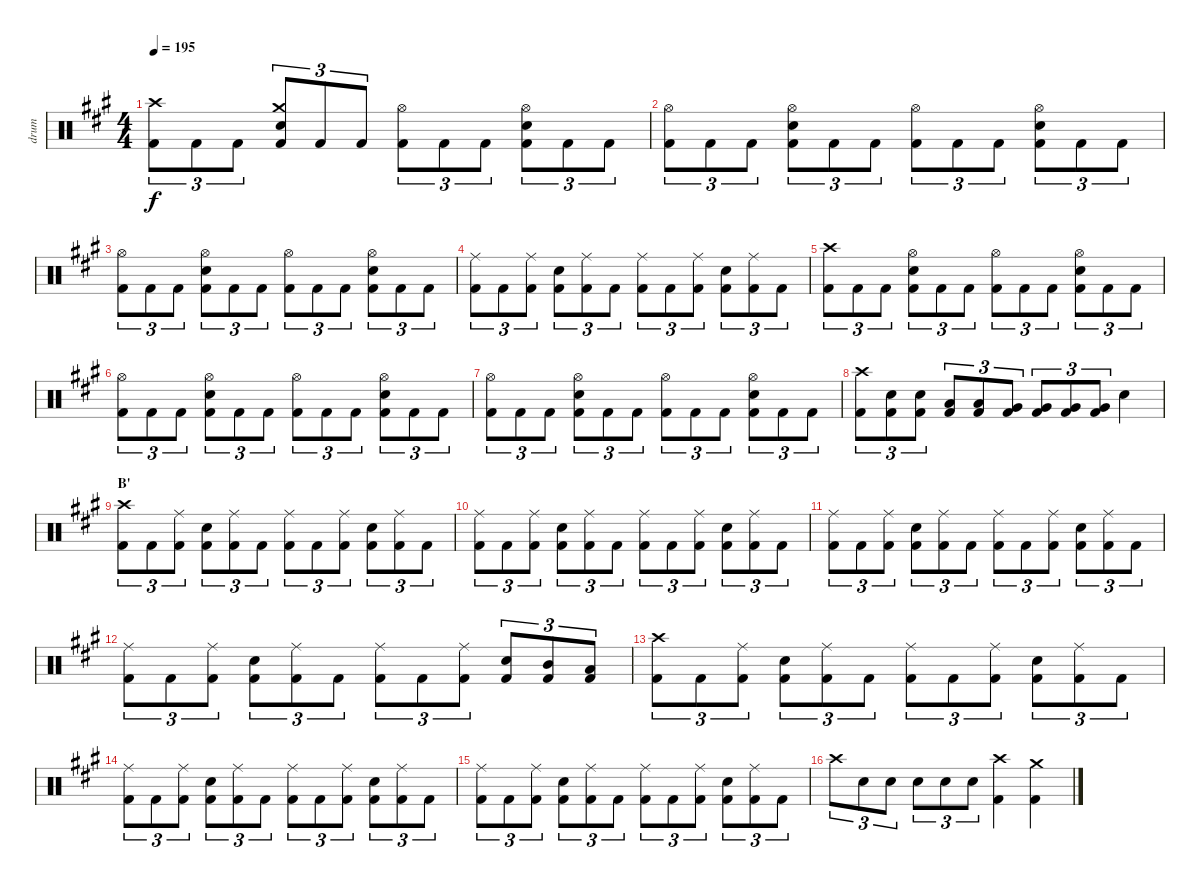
\track ("drum" "drum") {instrument percussion}
\staff {score}
\articulation defaults
\ts (4 4)
\tempo 195
\clef neutral
\ks a
("Crash high (hit)" "Kick (hit) 2").8{tu (3 2) dy f} "Kick (hit) 2".8{tu (3 2)} "Kick (hit) 2".8{tu (3 2)} ("Crash medium (hit)" "Electric Snare (hit)" "Kick (hit) 2").8{tu (3 2)} "Kick (hit) 2".8{tu (3 2)} "Kick (hit) 2".8{tu (3 2)} ("Hi-Hat (open)" "Kick (hit) 2").8{tu (3 2)} "Kick (hit) 2".8{tu (3 2)} "Kick (hit) 2".8{tu (3 2)} ("Hi-Hat (open)" "Electric Snare (hit)" "Kick (hit) 2").8{tu (3 2)} "Kick (hit) 2".8{tu (3 2)} "Kick (hit) 2".8{tu (3 2)} |
("Hi-Hat (open)" "Kick (hit) 2").8{tu (3 2)} "Kick (hit) 2".8{tu (3 2)} "Kick (hit) 2".8{tu (3 2)} ("Hi-Hat (open)" "Electric Snare (hit)" "Kick (hit) 2").8{tu (3 2)} "Kick (hit) 2".8{tu (3 2)} "Kick (hit) 2".8{tu (3 2)} ("Hi-Hat (open)" "Kick (hit) 2").8{tu (3 2)} "Kick (hit) 2".8{tu (3 2)} "Kick (hit) 2".8{tu (3 2)} ("Hi-Hat (open)" "Electric Snare (hit)" "Kick (hit) 2").8{tu (3 2)} "Kick (hit) 2".8{tu (3 2)} "Kick (hit) 2".8{tu (3 2)} |
("Hi-Hat (open)" "Kick (hit) 2").8{tu (3 2)} "Kick (hit) 2".8{tu (3 2)} "Kick (hit) 2".8{tu (3 2)} ("Hi-Hat (open)" "Electric Snare (hit)" "Kick (hit) 2").8{tu (3 2)} "Kick (hit) 2".8{tu (3 2)} "Kick (hit) 2".8{tu (3 2)} ("Hi-Hat (open)" "Kick (hit) 2").8{tu (3 2)} "Kick (hit) 2".8{tu (3 2)} "Kick (hit) 2".8{tu (3 2)} ("Hi-Hat (open)" "Electric Snare (hit)" "Kick (hit) 2").8{tu (3 2)} "Kick (hit) 2".8{tu (3 2)} "Kick (hit) 2".8{tu (3 2)} |
("Ride (middle)" "Kick (hit) 2").8{tu (3 2)} "Kick (hit) 2".8{tu (3 2)} ("Ride (middle)" "Kick (hit) 2").8{tu (3 2)} ("Electric Snare (hit)" "Kick (hit) 2").8{tu (3 2)} ("Ride (middle)" "Kick (hit) 2").8{tu (3 2)} "Kick (hit) 2".8{tu (3 2)} ("Ride (middle)" "Kick (hit) 2").8{tu (3 2)} "Kick (hit) 2".8{tu (3 2)} ("Ride (middle)" "Kick (hit) 2").8{tu (3 2)} ("Electric Snare (hit)" "Kick (hit) 2").8{tu (3 2)} ("Ride (middle)" "Kick (hit) 2").8{tu (3 2)} "Kick (hit) 2".8{tu (3 2)} |
("Crash high (hit)" "Kick (hit) 2").8{tu (3 2)} "Kick (hit) 2".8{tu (3 2)} "Kick (hit) 2".8{tu (3 2)} ("Hi-Hat (open)" "Electric Snare (hit)" "Kick (hit) 2").8{tu (3 2)} "Kick (hit) 2".8{tu (3 2)} "Kick (hit) 2".8{tu (3 2)} ("Hi-Hat (open)" "Kick (hit) 2").8{tu (3 2)} "Kick (hit) 2".8{tu (3 2)} "Kick (hit) 2".8{tu (3 2)} ("Hi-Hat (open)" "Electric Snare (hit)" "Kick (hit) 2").8{tu (3 2)} "Kick (hit) 2".8{tu (3 2)} "Kick (hit) 2".8{tu (3 2)} |
("Hi-Hat (open)" "Kick (hit) 2").8{tu (3 2)} "Kick (hit) 2".8{tu (3 2)} "Kick (hit) 2".8{tu (3 2)} ("Hi-Hat (open)" "Electric Snare (hit)" "Kick (hit) 2").8{tu (3 2)} "Kick (hit) 2".8{tu (3 2)} "Kick (hit) 2".8{tu (3 2)} ("Hi-Hat (open)" "Kick (hit) 2").8{tu (3 2)} "Kick (hit) 2".8{tu (3 2)} "Kick (hit) 2".8{tu (3 2)} ("Hi-Hat (open)" "Electric Snare (hit)" "Kick (hit) 2").8{tu (3 2)} "Kick (hit) 2".8{tu (3 2)} "Kick (hit) 2".8{tu (3 2)} |
("Hi-Hat (open)" "Kick (hit) 2").8{tu (3 2)} "Kick (hit) 2".8{tu (3 2)} "Kick (hit) 2".8{tu (3 2)} ("Hi-Hat (open)" "Electric Snare (hit)" "Kick (hit) 2").8{tu (3 2)} "Kick (hit) 2".8{tu (3 2)} "Kick (hit) 2".8{tu (3 2)} ("Hi-Hat (open)" "Kick (hit) 2").8{tu (3 2)} "Kick (hit) 2".8{tu (3 2)} "Kick (hit) 2".8{tu (3 2)} ("Hi-Hat (open)" "Electric Snare (hit)" "Kick (hit) 2").8{tu (3 2)} "Kick (hit) 2".8{tu (3 2)} "Kick (hit) 2".8{tu (3 2)} |
("Crash high (hit)" "Kick (hit) 2").8{tu (3 2)} ("Electric Snare (hit)" "Kick (hit) 2").8{tu (3 2)} ("Electric Snare (hit)" "Kick (hit) 2").8{tu (3 2)} ("Low Tom (hit)" "Kick (hit) 2").8{tu (3 2)} ("Low Tom (hit)" "Kick (hit) 2").8{tu (3 2)} ("Very Low Tom (hit)" "Kick (hit) 2").8{tu (3 2)} ("Very Low Tom (hit)" "Kick (hit) 2").8{tu (3 2)} ("Very Low Tom (hit)" "Kick (hit) 2").8{tu (3 2)} ("Very Low Tom (hit)" "Kick (hit) 2").8{tu (3 2)} "Electric Snare (hit)".4 |
\section ("" "B'")
("Crash high (hit)" "Kick (hit) 2").8{tu (3 2)} "Kick (hit) 2".8{tu (3 2)} ("Ride (middle)" "Kick (hit) 2").8{tu (3 2)} ("Electric Snare (hit)" "Kick (hit) 2").8{tu (3 2)} ("Ride (middle)" "Kick (hit) 2").8{tu (3 2)} "Kick (hit) 2".8{tu (3 2)} ("Ride (middle)" "Kick (hit) 2").8{tu (3 2)} "Kick (hit) 2".8{tu (3 2)} ("Ride (middle)" "Kick (hit) 2").8{tu (3 2)} ("Electric Snare (hit)" "Kick (hit) 2").8{tu (3 2)} ("Ride (middle)" "Kick (hit) 2").8{tu (3 2)} "Kick (hit) 2".8{tu (3 2)} |
("Ride (middle)" "Kick (hit) 2").8{tu (3 2)} "Kick (hit) 2".8{tu (3 2)} ("Ride (middle)" "Kick (hit) 2").8{tu (3 2)} ("Electric Snare (hit)" "Kick (hit) 2").8{tu (3 2)} ("Ride (middle)" "Kick (hit) 2").8{tu (3 2)} "Kick (hit) 2".8{tu (3 2)} ("Ride (middle)" "Kick (hit) 2").8{tu (3 2)} "Kick (hit) 2".8{tu (3 2)} ("Ride (middle)" "Kick (hit) 2").8{tu (3 2)} ("Electric Snare (hit)" "Kick (hit) 2").8{tu (3 2)} ("Ride (middle)" "Kick (hit) 2").8{tu (3 2)} "Kick (hit) 2".8{tu (3 2)} |
("Ride (middle)" "Kick (hit) 2").8{tu (3 2)} "Kick (hit) 2".8{tu (3 2)} ("Ride (middle)" "Kick (hit) 2").8{tu (3 2)} ("Electric Snare (hit)" "Kick (hit) 2").8{tu (3 2)} ("Ride (middle)" "Kick (hit) 2").8{tu (3 2)} "Kick (hit) 2".8{tu (3 2)} ("Ride (middle)" "Kick (hit) 2").8{tu (3 2)} "Kick (hit) 2".8{tu (3 2)} ("Ride (middle)" "Kick (hit) 2").8{tu (3 2)} ("Electric Snare (hit)" "Kick (hit) 2").8{tu (3 2)} ("Ride (middle)" "Kick (hit) 2").8{tu (3 2)} "Kick (hit) 2".8{tu (3 2)} |
("Ride (middle)" "Kick (hit) 2").8{tu (3 2)} "Kick (hit) 2".8{tu (3 2)} ("Ride (middle)" "Kick (hit) 2").8{tu (3 2)} ("Electric Snare (hit)" "Kick (hit) 2").8{tu (3 2)} ("Ride (middle)" "Kick (hit) 2").8{tu (3 2)} "Kick (hit) 2".8{tu (3 2)} ("Ride (middle)" "Kick (hit) 2").8{tu (3 2)} "Kick (hit) 2".8{tu (3 2)} ("Ride (middle)" "Kick (hit) 2").8{tu (3 2)} ("Electric Snare (hit)" "Kick (hit) 2").8{tu (3 2)} ("Mid Tom (hit)" "Kick (hit) 2").8{tu (3 2)} ("Low Tom (hit)" "Kick (hit) 2").8{tu (3 2)} |
("Crash high (hit)" "Kick (hit) 2").8{tu (3 2)} "Kick (hit) 2".8{tu (3 2)} ("Ride (middle)" "Kick (hit) 2").8{tu (3 2)} ("Electric Snare (hit)" "Kick (hit) 2").8{tu (3 2)} ("Ride (middle)" "Kick (hit) 2").8{tu (3 2)} "Kick (hit) 2".8{tu (3 2)} ("Ride (middle)" "Kick (hit) 2").8{tu (3 2)} "Kick (hit) 2".8{tu (3 2)} ("Ride (middle)" "Kick (hit) 2").8{tu (3 2)} ("Electric Snare (hit)" "Kick (hit) 2").8{tu (3 2)} ("Ride (middle)" "Kick (hit) 2").8{tu (3 2)} "Kick (hit) 2".8{tu (3 2)} |
("Ride (middle)" "Kick (hit) 2").8{tu (3 2)} "Kick (hit) 2".8{tu (3 2)} ("Ride (middle)" "Kick (hit) 2").8{tu (3 2)} ("Electric Snare (hit)" "Kick (hit) 2").8{tu (3 2)} ("Ride (middle)" "Kick (hit) 2").8{tu (3 2)} "Kick (hit) 2".8{tu (3 2)} ("Ride (middle)" "Kick (hit) 2").8{tu (3 2)} "Kick (hit) 2".8{tu (3 2)} ("Ride (middle)" "Kick (hit) 2").8{tu (3 2)} ("Electric Snare (hit)" "Kick (hit) 2").8{tu (3 2)} ("Ride (middle)" "Kick (hit) 2").8{tu (3 2)} "Kick (hit) 2".8{tu (3 2)} |
("Ride (middle)" "Kick (hit) 2").8{tu (3 2)} "Kick (hit) 2".8{tu (3 2)} ("Ride (middle)" "Kick (hit) 2").8{tu (3 2)} ("Electric Snare (hit)" "Kick (hit) 2").8{tu (3 2)} ("Ride (middle)" "Kick (hit) 2").8{tu (3 2)} "Kick (hit) 2".8{tu (3 2)} ("Ride (middle)" "Kick (hit) 2").8{tu (3 2)} "Kick (hit) 2".8{tu (3 2)} ("Ride (middle)" "Kick (hit) 2").8{tu (3 2)} ("Electric Snare (hit)" "Kick (hit) 2").8{tu (3 2)} ("Ride (middle)" "Kick (hit) 2").8{tu (3 2)} "Kick (hit) 2".8{tu (3 2)} |
"Crash high (hit)".8{tu (3 2)} "Electric Snare (hit)".8{tu (3 2)} "Electric Snare (hit)".8{tu (3 2)} "Electric Snare (hit)".8{tu (3 2)} "Electric Snare (hit)".8{tu (3 2)} "Electric Snare (hit)".8{tu (3 2)} ("Crash high (hit)" "Kick (hit) 2").4 ("Crash medium (hit)" "Kick (hit) 2").4
